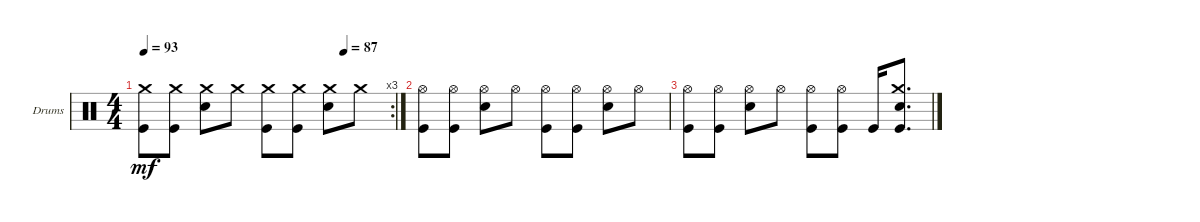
\bracketExtendMode groupsimilarinstruments
\firstSystemTrackNameOrientation horizontal
\otherSystemsTrackNameOrientation horizontal
\track ("Drumkit" "Drums") {instrument percussion}
\staff {score}
\articulation defaults
\rc 3
\ts (4 4)
\tempo 93
\tempo (87 0.8125)
\clef neutral
\ks c
("Kick (hit)" "Crash medium (hit)").8{dy mf} ("Kick (hit)" "Crash medium (hit)").8 ("Snare (hit) 2" "Crash medium (hit)").8 "Crash medium (hit)".8 ("Kick (hit)" "Crash medium (hit)").8 ("Kick (hit)" "Crash medium (hit)").8 ("Snare (hit) 2" "Crash medium (hit)").8 "Crash medium (hit)".8 |
("Kick (hit)" "Hi-Hat (open)").8 ("Kick (hit)" "Hi-Hat (open)").8 ("Snare (hit) 2" "Hi-Hat (open)").8 "Hi-Hat (open)".8 ("Kick (hit)" "Hi-Hat (open)").8 ("Kick (hit)" "Hi-Hat (open)").8 ("Snare (hit) 2" "Hi-Hat (open)").8 "Hi-Hat (open)".8 |
("Kick (hit)" "Hi-Hat (open)").8 ("Kick (hit)" "Hi-Hat (open)").8 ("Snare (hit) 2" "Hi-Hat (open)").8 "Hi-Hat (open)".8 ("Kick (hit)" "Hi-Hat (open)").8 ("Kick (hit)" "Hi-Hat (open)").8 "Kick (hit)".16 ("Snare (hit) 2" "Crash medium (hit)" "Kick (hit)").8{d}
